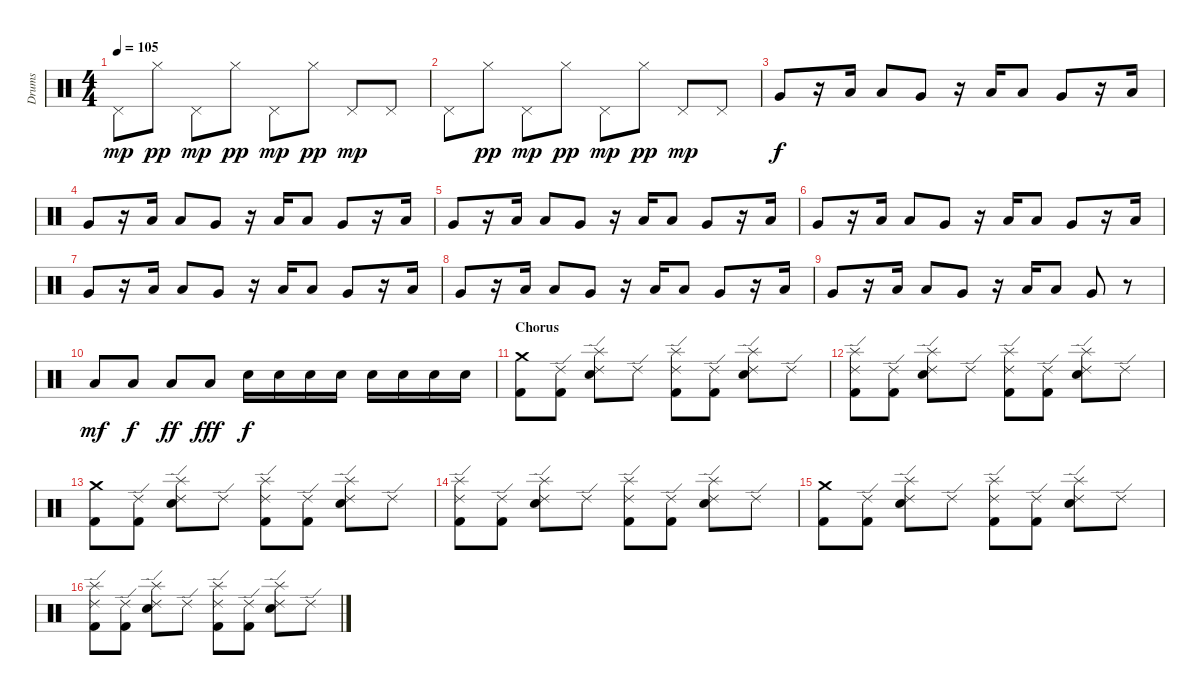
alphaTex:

\track ("Drums" "Drums") {instrument percussion}
\staff {score}
\articulation defaults
\ts (4 4)
\tempo 105
\clef neutral
\ks c "Pedal Hi-Hat (hit)".8{dy mp} "Hi-Hat (closed)".8{dy pp} "Pedal Hi-Hat (hit)".8{dy mp} "Hi-Hat (closed)".8{dy pp} "Pedal Hi-Hat (hit)".8{dy mp} "Hi-Hat (closed)".8{dy pp} "Pedal Hi-Hat (hit)".8{dy mp} "Pedal Hi-Hat (hit)".8
|
"Pedal Hi-Hat (hit)".8 "Hi-Hat (closed)".8{dy pp} "Pedal Hi-Hat (hit)".8{dy mp} "Hi-Hat (closed)".8{dy pp} "Pedal Hi-Hat (hit)".8{dy mp} "Hi-Hat (closed)".8{dy pp} "Pedal Hi-Hat (hit)".8{dy mp} "Pedal Hi-Hat (hit)".8 |
"Very Low Tom (hit)".8{dy f} r.16 "Low Floor Tom (hit)".16 "Low Tom (hit)".8 "Very Low Tom (hit)".8 r.16 "Low Floor Tom (hit)".16 "Low Tom (hit)".8 "Very Low Tom (hit)".8 r.16 "Low Floor Tom (hit)".16 |
"Very Low Tom (hit)".8 r.16 "Low Floor Tom (hit)".16 "Low Tom (hit)".8 "Very Low Tom (hit)".8 r.16 "Low Floor Tom (hit)".16 "Low Tom (hit)".8 "Very Low Tom (hit)".8 r.16 "Low Floor Tom (hit)".16 |
"Very Low Tom (hit)".8 r.16 "Low Floor Tom (hit)".16 "Low Tom (hit)".8 "Very Low Tom (hit)".8 r.16 "Low Floor Tom (hit)".16 "Low Tom (hit)".8 "Very Low Tom (hit)".8 r.16 "Low Floor Tom (hit)".16 |
"Very Low Tom (hit)".8 r.16 "Low Floor Tom (hit)".16 "Low Tom (hit)".8 "Very Low Tom (hit)".8 r.16 "Low Floor Tom (hit)".16 "Low Tom (hit)".8 "Very Low Tom (hit)".8 r.16 "Low Floor Tom (hit)".16 |
"Very Low Tom (hit)".8 r.16 "Low Floor Tom (hit)".16 "Low Tom (hit)".8 "Very Low Tom (hit)".8 r.16 "Low Floor Tom (hit)".16 "Low Tom (hit)".8 "Very Low Tom (hit)".8 r.16 "Low Floor Tom (hit)".16 |
"Very Low Tom (hit)".8 r.16 "Low Floor Tom (hit)".16 "Low Tom (hit)".8 "Very Low Tom (hit)".8 r.16 "Low Floor Tom (hit)".16 "Low Tom (hit)".8 "Very Low Tom (hit)".8 r.16 "Low Floor Tom (hit)".16 |
"Very Low Tom (hit)".8 r.16 "Low Floor Tom (hit)".16 "Low Tom (hit)".8 "Very Low Tom (hit)".8 r.16 "Low Floor Tom (hit)".16 "Low Tom (hit)".8 "Very Low Tom (hit)".8 r.8 |
"Low Tom (hit)".8{dy mf} "Low Tom (hit)".8{dy f} "Low Tom (hit)".8{dy ff} "Low Tom (hit)".8{dy fff} "Electric Snare (hit)".16{dy f} "Electric Snare (hit)".16 "Electric Snare (hit)".16 "Electric Snare (hit)".16 "Electric Snare (hit)".16 "Electric Snare (hit)".16 "Electric Snare (hit)".16 "Electric Snare (hit)".16 |
\section ("" "Chorus")
("Crash medium (hit)" "Kick (hit) 2").8 ("Ride (edge) 2" "Kick (hit) 2").8 ("Ride (edge) 2" "Splash (hit)" "Electric Snare (hit)").8 "Ride (edge) 2".8 ("Ride (edge) 2" "Splash (hit)" "Kick (hit) 2").8 ("Ride (edge) 2" "Kick (hit) 2").8 ("Ride (edge) 2" "Splash (hit)" "Electric Snare (hit)").8 "Ride (edge) 2".8 |
("Ride (edge) 2" "Splash (hit)" "Kick (hit) 2").8 ("Ride (edge) 2" "Kick (hit) 2").8 ("Ride (edge) 2" "Splash (hit)" "Electric Snare (hit)").8 "Ride (edge) 2".8 ("Ride (edge) 2" "Splash (hit)" "Kick (hit) 2").8 ("Ride (edge) 2" "Kick (hit) 2").8 ("Ride (edge) 2" "Splash (hit)" "Electric Snare (hit)").8 "Ride (edge) 2".8 |
("Crash medium (hit)" "Kick (hit) 2").8 ("Ride (edge) 2" "Kick (hit) 2").8 ("Ride (edge) 2" "Splash (hit)" "Electric Snare (hit)").8 "Ride (edge) 2".8 ("Ride (edge) 2" "Splash (hit)" "Kick (hit) 2").8 ("Ride (edge) 2" "Kick (hit) 2").8 ("Ride (edge) 2" "Splash (hit)" "Electric Snare (hit)").8 "Ride (edge) 2".8 |
("Ride (edge) 2" "Splash (hit)" "Kick (hit) 2").8 ("Ride (edge) 2" "Kick (hit) 2").8 ("Ride (edge) 2" "Splash (hit)" "Electric Snare (hit)").8 "Ride (edge) 2".8 ("Ride (edge) 2" "Splash (hit)" "Kick (hit) 2").8 ("Ride (edge) 2" "Kick (hit) 2").8 ("Ride (edge) 2" "Splash (hit)" "Electric Snare (hit)").8 "Ride (edge) 2".8 |
("Crash medium (hit)" "Kick (hit) 2").8 ("Ride (edge) 2" "Kick (hit) 2").8 ("Ride (edge) 2" "Splash (hit)" "Electric Snare (hit)").8 "Ride (edge) 2".8 ("Ride (edge) 2" "Splash (hit)" "Kick (hit) 2").8 ("Ride (edge) 2" "Kick (hit) 2").8 ("Ride (edge) 2" "Splash (hit)" "Electric Snare (hit)").8 "Ride (edge) 2".8 |
("Ride (edge) 2" "Splash (hit)" "Kick (hit) 2").8 ("Ride (edge) 2" "Kick (hit) 2").8 ("Ride (edge) 2" "Splash (hit)" "Electric Snare (hit)").8 "Ride (edge) 2".8 ("Ride (edge) 2" "Splash (hit)" "Kick (hit) 2").8 ("Ride (edge) 2" "Kick (hit) 2").8 ("Ride (edge) 2" "Splash (hit)" "Electric Snare (hit)").8 "Ride (edge) 2".8
